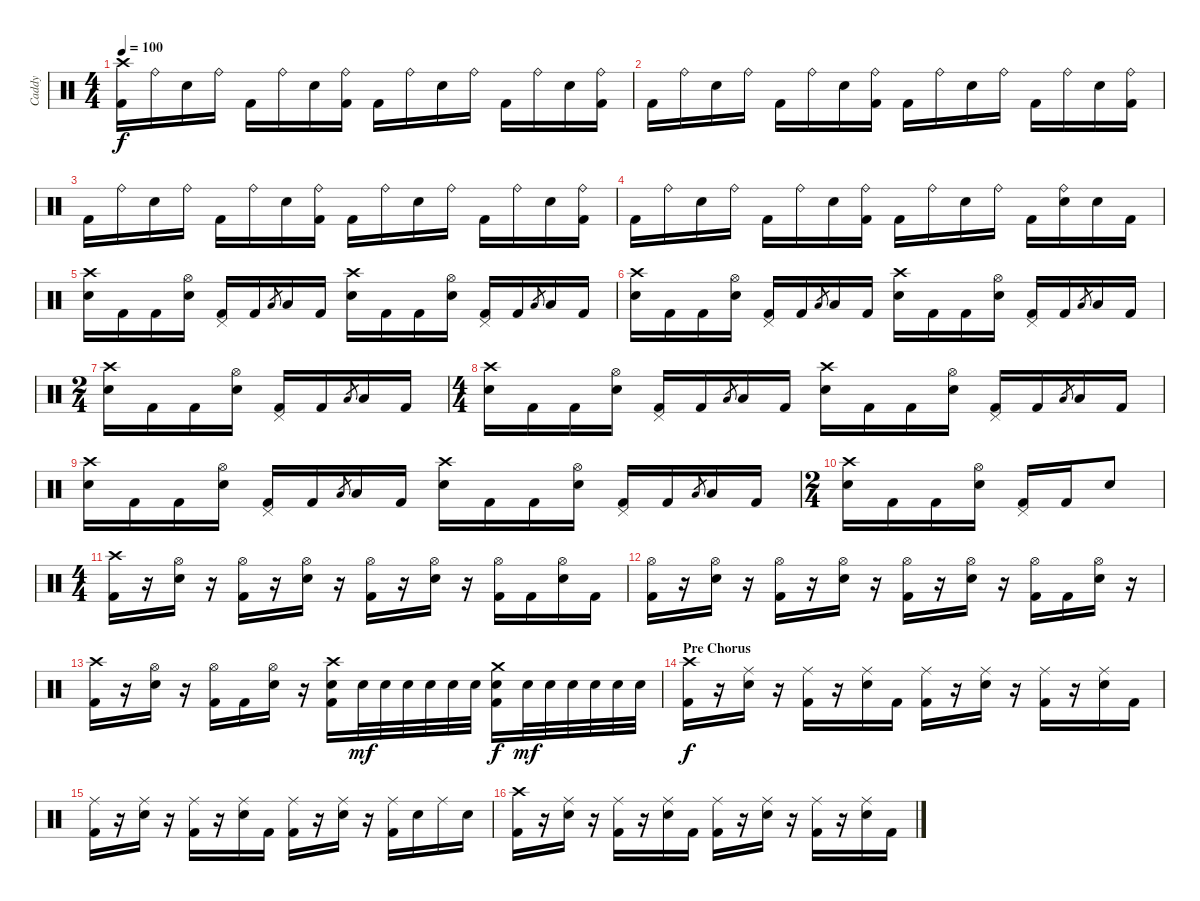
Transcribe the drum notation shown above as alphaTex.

\track ("Caddy" "Caddy") {instrument percussion}
\staff {score}
\articulation defaults
\ts (4 4)
\tempo 100
\clef neutral
\ks c
("Crash high (hit)" "Kick (hit) 2").16{dy f} "Ride (bell)".16 "Electric Snare (hit)".16 "Ride (bell)".16 "Kick (hit) 2".16 "Ride (bell)".16 "Electric Snare (hit)".16 ("Ride (bell)" "Kick (hit) 2").16 "Kick (hit) 2".16 "Ride (bell)".16 "Electric Snare (hit)".16 "Ride (bell)".16 "Kick (hit) 2".16 "Ride (bell)".16 "Electric Snare (hit)".16 ("Ride (bell)" "Kick (hit) 2").16 |
"Kick (hit) 2".16 "Ride (bell)".16 "Electric Snare (hit)".16 "Ride (bell)".16 "Kick (hit) 2".16 "Ride (bell)".16 "Electric Snare (hit)".16 ("Ride (bell)" "Kick (hit) 2").16 "Kick (hit) 2".16 "Ride (bell)".16 "Electric Snare (hit)".16 "Ride (bell)".16 "Kick (hit) 2".16 "Ride (bell)".16 "Electric Snare (hit)".16 ("Ride (bell)" "Kick (hit) 2").16 |
"Kick (hit) 2".16 "Ride (bell)".16 "Electric Snare (hit)".16 "Ride (bell)".16 "Kick (hit) 2".16 "Ride (bell)".16 "Electric Snare (hit)".16 ("Ride (bell)" "Kick (hit) 2").16 "Kick (hit) 2".16 "Ride (bell)".16 "Electric Snare (hit)".16 "Ride (bell)".16 "Kick (hit) 2".16 "Ride (bell)".16 "Electric Snare (hit)".16 ("Ride (bell)" "Kick (hit) 2").16 |
"Kick (hit) 2".16 "Ride (bell)".16 "Electric Snare (hit)".16 "Ride (bell)".16 "Kick (hit) 2".16 "Ride (bell)".16 "Electric Snare (hit)".16 ("Ride (bell)" "Kick (hit) 2").16 "Kick (hit) 2".16 "Ride (bell)".16 "Electric Snare (hit)".16 "Ride (bell)".16 "Kick (hit) 2".16 ("Ride (bell)" "Electric Snare (hit)").16 "Electric Snare (hit)".16 "Kick (hit) 2".16 |
("Crash high (hit)" "Electric Snare (hit)").16 "Kick (hit) 2".16 "Kick (hit) 2".16 ("Hi-Hat (open)" "Electric Snare (hit)").16 ("Pedal Hi-Hat (hit)" "Kick (hit) 2").16 "Kick (hit) 2".16 "Low Floor Tom (hit)".8{gr} "Low Floor Tom (hit)".16 "Kick (hit) 2".16 ("Crash high (hit)" "Electric Snare (hit)").16 "Kick (hit) 2".16 "Kick (hit) 2".16 ("Hi-Hat (open)" "Electric Snare (hit)").16 ("Pedal Hi-Hat (hit)" "Kick (hit) 2").16 "Kick (hit) 2".16 "Low Floor Tom (hit)".8{gr} "Low Floor Tom (hit)".16 "Kick (hit) 2".16 |
("Crash high (hit)" "Electric Snare (hit)").16 "Kick (hit) 2".16 "Kick (hit) 2".16 ("Hi-Hat (open)" "Electric Snare (hit)").16 ("Pedal Hi-Hat (hit)" "Kick (hit) 2").16 "Kick (hit) 2".16 "Low Floor Tom (hit)".8{gr} "Low Floor Tom (hit)".16 "Kick (hit) 2".16 ("Crash high (hit)" "Electric Snare (hit)").16 "Kick (hit) 2".16 "Kick (hit) 2".16 ("Hi-Hat (open)" "Electric Snare (hit)").16 ("Pedal Hi-Hat (hit)" "Kick (hit) 2").16 "Kick (hit) 2".16 "Low Floor Tom (hit)".8{gr} "Low Floor Tom (hit)".16 "Kick (hit) 2".16 |
\ts (2 4)
("Crash high (hit)" "Electric Snare (hit)").16 "Kick (hit) 2".16 "Kick (hit) 2".16 ("Hi-Hat (open)" "Electric Snare (hit)").16 ("Pedal Hi-Hat (hit)" "Kick (hit) 2").16 "Kick (hit) 2".16 "Low Floor Tom (hit)".8{gr} "Low Floor Tom (hit)".16 "Kick (hit) 2".16 |
\ts (4 4)
("Crash high (hit)" "Electric Snare (hit)").16 "Kick (hit) 2".16 "Kick (hit) 2".16 ("Hi-Hat (open)" "Electric Snare (hit)").16 ("Pedal Hi-Hat (hit)" "Kick (hit) 2").16 "Kick (hit) 2".16 "Low Floor Tom (hit)".8{gr} "Low Floor Tom (hit)".16 "Kick (hit) 2".16 ("Crash high (hit)" "Electric Snare (hit)").16 "Kick (hit) 2".16 "Kick (hit) 2".16 ("Hi-Hat (open)" "Electric Snare (hit)").16 ("Pedal Hi-Hat (hit)" "Kick (hit) 2").16 "Kick (hit) 2".16 "Low Floor Tom (hit)".8{gr} "Low Floor Tom (hit)".16 "Kick (hit) 2".16 |
("Crash high (hit)" "Electric Snare (hit)").16 "Kick (hit) 2".16 "Kick (hit) 2".16 ("Hi-Hat (open)" "Electric Snare (hit)").16 ("Pedal Hi-Hat (hit)" "Kick (hit) 2").16 "Kick (hit) 2".16 "Low Floor Tom (hit)".8{gr} "Low Floor Tom (hit)".16 "Kick (hit) 2".16 ("Crash high (hit)" "Electric Snare (hit)").16 "Kick (hit) 2".16 "Kick (hit) 2".16 ("Hi-Hat (open)" "Electric Snare (hit)").16 ("Pedal Hi-Hat (hit)" "Kick (hit) 2").16 "Kick (hit) 2".16 "Low Floor Tom (hit)".8{gr} "Low Floor Tom (hit)".16 "Kick (hit) 2".16 |
\ts (2 4)
("Crash high (hit)" "Electric Snare (hit)").16 "Kick (hit) 2".16 "Kick (hit) 2".16 ("Hi-Hat (open)" "Electric Snare (hit)").16 ("Pedal Hi-Hat (hit)" "Kick (hit) 2").16 "Kick (hit) 2".16 "Electric Snare (hit)".8 |
\ts (4 4)
("Crash high (hit)" "Kick (hit) 2").16 r.16 ("Hi-Hat (open)" "Electric Snare (hit)").16 r.16 ("Hi-Hat (open)" "Kick (hit) 2").16 r.16 ("Hi-Hat (open)" "Electric Snare (hit)").16 r.16 ("Hi-Hat (open)" "Kick (hit) 2").16 r.16 ("Hi-Hat (open)" "Electric Snare (hit)").16 r.16 ("Hi-Hat (open)" "Kick (hit) 2").16 "Kick (hit) 2".16 ("Hi-Hat (open)" "Electric Snare (hit)").16 "Kick (hit) 2".16 |
("Hi-Hat (open)" "Kick (hit) 2").16 r.16 ("Hi-Hat (open)" "Electric Snare (hit)").16 r.16 ("Hi-Hat (open)" "Kick (hit) 2").16 r.16 ("Hi-Hat (open)" "Electric Snare (hit)").16 r.16 ("Hi-Hat (open)" "Kick (hit) 2").16 r.16 ("Hi-Hat (open)" "Electric Snare (hit)").16 r.16 ("Hi-Hat (open)" "Kick (hit) 2").16 "Kick (hit) 2".16 ("Hi-Hat (open)" "Electric Snare (hit)").16 r.16 |
("Crash high (hit)" "Kick (hit) 2").16 r.16 ("Hi-Hat (open)" "Electric Snare (hit)").16 r.16 ("Hi-Hat (open)" "Kick (hit) 2").16 "Kick (hit) 2".16 ("Hi-Hat (open)" "Electric Snare (hit)").16 r.16 ("Crash high (hit)" "Electric Snare (hit)" "Kick (hit) 2").16 "Electric Snare (hit)".32{dy mf} "Electric Snare (hit)".32 "Electric Snare (hit)".32 "Electric Snare (hit)".32 "Electric Snare (hit)".32 "Electric Snare (hit)".32 ("Crash medium (hit)" "Electric Snare (hit)" "Kick (hit) 2").16{dy f} "Electric Snare (hit)".32{dy mf} "Electric Snare (hit)".32 "Electric Snare (hit)".32 "Electric Snare (hit)".32 "Electric Snare (hit)".32 "Electric Snare (hit)".32 |
\section ("" "Pre Chorus")
("Crash high (hit)" "Kick (hit) 2").16{dy f} r.16 ("Ride (middle)" "Electric Snare (hit)").16 r.16 ("Ride (middle)" "Kick (hit) 2").16 r.16 ("Ride (middle)" "Electric Snare (hit)").16 "Kick (hit) 2".16 ("Ride (middle)" "Kick (hit) 2").16 r.16 ("Ride (middle)" "Electric Snare (hit)").16 r.16 ("Ride (middle)" "Kick (hit) 2").16 r.16 ("Ride (middle)" "Electric Snare (hit)").16 "Kick (hit) 2".16 |
("Ride (middle)" "Kick (hit) 2").16 r.16 ("Ride (middle)" "Electric Snare (hit)").16 r.16 ("Ride (middle)" "Kick (hit) 2").16 r.16 ("Ride (middle)" "Electric Snare (hit)").16 "Kick (hit) 2".16 ("Ride (middle)" "Kick (hit) 2").16 r.16 ("Ride (middle)" "Electric Snare (hit)").16 r.16 ("Ride (middle)" "Kick (hit) 2").16 "Electric Snare (hit)".16 "Ride (middle)".16 "Electric Snare (hit)".16 |
("Crash high (hit)" "Kick (hit) 2").16 r.16 ("Ride (middle)" "Electric Snare (hit)").16 r.16 ("Ride (middle)" "Kick (hit) 2").16 r.16 ("Ride (middle)" "Electric Snare (hit)").16 "Kick (hit) 2".16 ("Ride (middle)" "Kick (hit) 2").16 r.16 ("Ride (middle)" "Electric Snare (hit)").16 r.16 ("Ride (middle)" "Kick (hit) 2").16 r.16 ("Ride (middle)" "Electric Snare (hit)").16 "Kick (hit) 2".16
